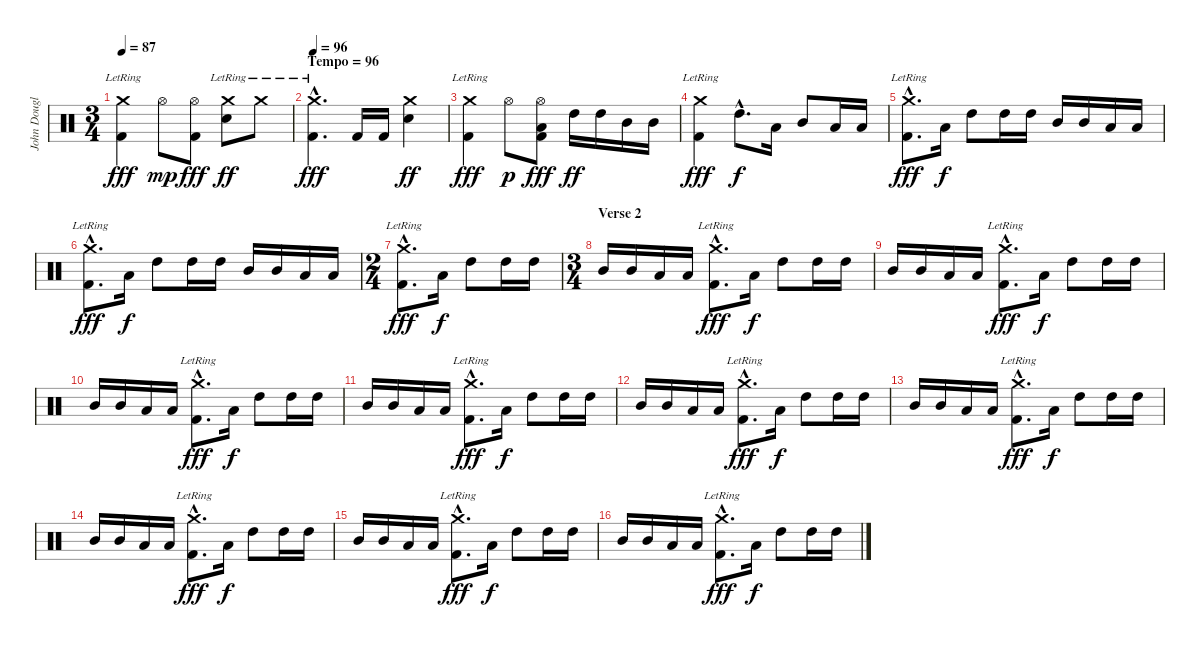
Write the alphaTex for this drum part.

\track ("John Douglas (Drums)" "John Dougl") {instrument percussion}
\staff {score}
\articulation defaults
\ts (3 4)
\tempo 87
\clef neutral
\ks c
("Crash medium (hit)"{lr} "Kick (hit) 2").4{dy fff} "Hi-Hat (open)".8{dy mp} ("Hi-Hat (open)" "Kick (hit) 2").8{dy fff} ("Crash medium (hit)"{lr} "Snare (hit) 2").8{dy ff} "Crash medium (hit)"{lr}.8 |
\section ("" "Tempo = 96")
\tempo 96
("Crash medium (hit)"{hac lr} "Kick (hit) 2"{hac}).4{d dy fff} "Kick (hit) 2".16 "Kick (hit) 2".16 ("Crash medium (hit)" "Snare (hit) 2").4{dy ff} |
("Crash medium (hit)"{lr} "Kick (hit) 2").4{dy fff} "Hi-Hat (open)".8{dy p} ("Hi-Hat (open)" "Low Tom (hit)" "Kick (hit) 2").8{dy fff} "High Tom (hit)".16{dy ff} "High Tom (hit)".16 "Mid Tom (hit)".16 "Mid Tom (hit)".16 |
("Crash medium (hit)"{lr} "Kick (hit) 2").4{dy fff} "High Tom (hit)"{hac}.8{d dy f} "Low Tom (hit)".16 "Mid Tom (hit)".8 "Low Tom (hit)".16 "Low Tom (hit)".16 |
("Crash medium (hit)"{hac lr} "Kick (hit) 2"{hac}).8{d dy fff} "Low Tom (hit)".16{dy f} "High Tom (hit)".8 "High Tom (hit)".16 "High Tom (hit)".16 "Mid Tom (hit)".16 "Mid Tom (hit)".16 "Low Tom (hit)".16 "Low Tom (hit)".16 |
("Crash medium (hit)"{hac lr} "Kick (hit) 2"{hac}).8{d dy fff} "Low Tom (hit)".16{dy f} "High Tom (hit)".8 "High Tom (hit)".16 "High Tom (hit)".16 "Mid Tom (hit)".16 "Mid Tom (hit)".16 "Low Tom (hit)".16 "Low Tom (hit)".16 |
\ts (2 4)
("Crash medium (hit)"{hac lr} "Kick (hit) 2"{hac}).8{d dy fff} "Low Tom (hit)".16{dy f} "High Tom (hit)".8 "High Tom (hit)".16 "High Tom (hit)".16 |
\ts (3 4)
\section ("" "Verse 2")
"Mid Tom (hit)".16 "Mid Tom (hit)".16 "Low Tom (hit)".16 "Low Tom (hit)".16 ("Crash medium (hit)"{hac lr} "Kick (hit) 2"{hac}).8{d dy fff} "Low Tom (hit)".16{dy f} "High Tom (hit)".8 "High Tom (hit)".16 "High Tom (hit)".16 |
"Mid Tom (hit)".16 "Mid Tom (hit)".16 "Low Tom (hit)".16 "Low Tom (hit)".16 ("Crash medium (hit)"{hac lr} "Kick (hit) 2"{hac}).8{d dy fff} "Low Tom (hit)".16{dy f} "High Tom (hit)".8 "High Tom (hit)".16 "High Tom (hit)".16 |
"Mid Tom (hit)".16 "Mid Tom (hit)".16 "Low Tom (hit)".16 "Low Tom (hit)".16 ("Crash medium (hit)"{hac lr} "Kick (hit) 2"{hac}).8{d dy fff} "Low Tom (hit)".16{dy f} "High Tom (hit)".8 "High Tom (hit)".16 "High Tom (hit)".16 |
"Mid Tom (hit)".16 "Mid Tom (hit)".16 "Low Tom (hit)".16 "Low Tom (hit)".16 ("Crash medium (hit)"{hac lr} "Kick (hit) 2"{hac}).8{d dy fff} "Low Tom (hit)".16{dy f} "High Tom (hit)".8 "High Tom (hit)".16 "High Tom (hit)".16 |
"Mid Tom (hit)".16 "Mid Tom (hit)".16 "Low Tom (hit)".16 "Low Tom (hit)".16 ("Crash medium (hit)"{hac lr} "Kick (hit) 2"{hac}).8{d dy fff} "Low Tom (hit)".16{dy f} "High Tom (hit)".8 "High Tom (hit)".16 "High Tom (hit)".16 |
"Mid Tom (hit)".16 "Mid Tom (hit)".16 "Low Tom (hit)".16 "Low Tom (hit)".16 ("Crash medium (hit)"{hac lr} "Kick (hit) 2"{hac}).8{d dy fff} "Low Tom (hit)".16{dy f} "High Tom (hit)".8 "High Tom (hit)".16 "High Tom (hit)".16 |
"Mid Tom (hit)".16 "Mid Tom (hit)".16 "Low Tom (hit)".16 "Low Tom (hit)".16 ("Crash medium (hit)"{hac lr} "Kick (hit) 2"{hac}).8{d dy fff} "Low Tom (hit)".16{dy f} "High Tom (hit)".8 "High Tom (hit)".16 "High Tom (hit)".16 |
"Mid Tom (hit)".16 "Mid Tom (hit)".16 "Low Tom (hit)".16 "Low Tom (hit)".16 ("Crash medium (hit)"{hac lr} "Kick (hit) 2"{hac}).8{d dy fff} "Low Tom (hit)".16{dy f} "High Tom (hit)".8 "High Tom (hit)".16 "High Tom (hit)".16 |
"Mid Tom (hit)".16 "Mid Tom (hit)".16 "Low Tom (hit)".16 "Low Tom (hit)".16 ("Crash medium (hit)"{hac lr} "Kick (hit) 2"{hac}).8{d dy fff} "Low Tom (hit)".16{dy f} "High Tom (hit)".8 "High Tom (hit)".16 "High Tom (hit)".16
